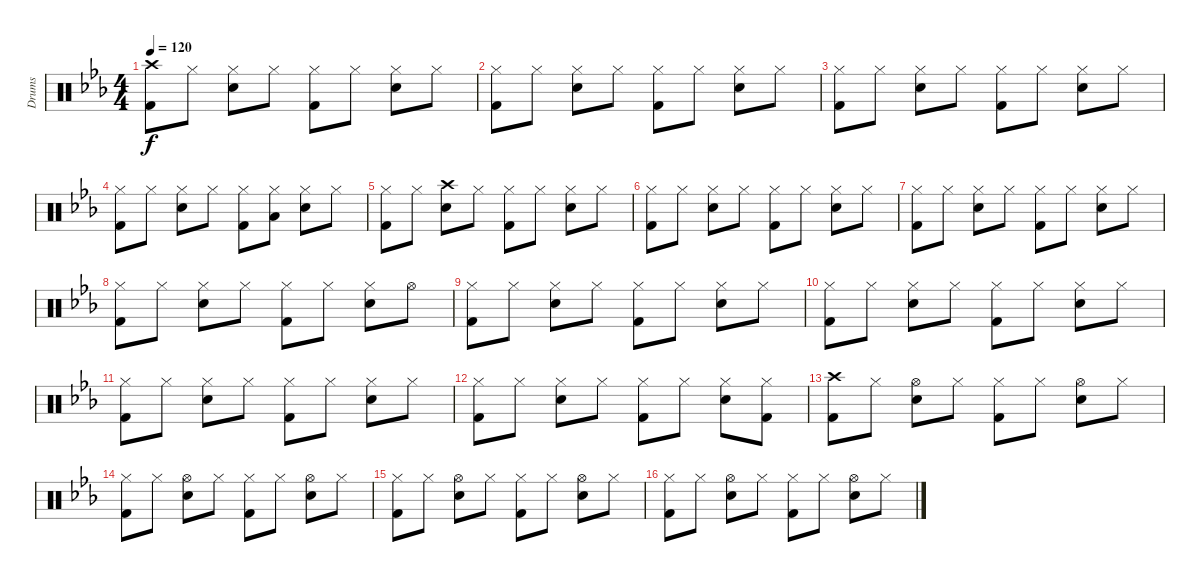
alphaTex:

\track ("Drums" "Drums") {instrument percussion}
\staff {score}
\articulation defaults
\ts (4 4)
\tempo 120
\clef neutral
\ks eb
("Crash high (hit)" "Kick (hit) 2").8{dy f} "Hi-Hat (closed)".8 ("Hi-Hat (closed)" "Snare (hit) 2").8 "Hi-Hat (closed)".8 ("Hi-Hat (closed)" "Kick (hit) 2").8 "Hi-Hat (closed)".8 ("Hi-Hat (closed)" "Snare (hit) 2").8 "Hi-Hat (closed)".8 |
("Hi-Hat (closed)" "Kick (hit) 2").8 "Hi-Hat (closed)".8 ("Hi-Hat (closed)" "Snare (hit) 2").8 "Hi-Hat (closed)".8 ("Hi-Hat (closed)" "Kick (hit) 2").8 "Hi-Hat (closed)".8 ("Hi-Hat (closed)" "Snare (hit) 2").8 "Hi-Hat (closed)".8 |
("Hi-Hat (closed)" "Kick (hit) 2").8 "Hi-Hat (closed)".8 ("Hi-Hat (closed)" "Snare (hit) 2").8 "Hi-Hat (closed)".8 ("Hi-Hat (closed)" "Kick (hit) 2").8 "Hi-Hat (closed)".8 ("Hi-Hat (closed)" "Snare (hit) 2").8 "Hi-Hat (closed)".8 |
("Hi-Hat (closed)" "Kick (hit) 2").8 "Hi-Hat (closed)".8 ("Hi-Hat (closed)" "Snare (hit) 2").8 "Hi-Hat (closed)".8 ("Hi-Hat (closed)" "Kick (hit) 2").8 ("Hi-Hat (closed)" "Low Tom (hit)").8 ("Hi-Hat (closed)" "Snare (hit) 2").8 "Hi-Hat (closed)".8 |
("Hi-Hat (closed)" "Kick (hit) 2").8 "Hi-Hat (closed)".8 ("Crash high (hit)" "Snare (hit) 2").8 "Hi-Hat (closed)".8 ("Hi-Hat (closed)" "Kick (hit) 2").8 "Hi-Hat (closed)".8 ("Hi-Hat (closed)" "Snare (hit) 2").8 "Hi-Hat (closed)".8 |
("Hi-Hat (closed)" "Kick (hit) 2").8 "Hi-Hat (closed)".8 ("Hi-Hat (closed)" "Snare (hit) 2").8 "Hi-Hat (closed)".8 ("Hi-Hat (closed)" "Kick (hit) 2").8 "Hi-Hat (closed)".8 ("Hi-Hat (closed)" "Snare (hit) 2").8 "Hi-Hat (closed)".8 |
("Hi-Hat (closed)" "Kick (hit) 2").8 "Hi-Hat (closed)".8 ("Hi-Hat (closed)" "Snare (hit) 2").8 "Hi-Hat (closed)".8 ("Hi-Hat (closed)" "Kick (hit) 2").8 "Hi-Hat (closed)".8 ("Hi-Hat (closed)" "Snare (hit) 2").8 "Hi-Hat (closed)".8 |
("Hi-Hat (closed)" "Kick (hit) 2").8 "Hi-Hat (closed)".8 ("Hi-Hat (closed)" "Snare (hit) 2").8 "Hi-Hat (closed)".8 ("Hi-Hat (closed)" "Kick (hit) 2").8 "Hi-Hat (closed)".8 ("Hi-Hat (closed)" "Snare (hit) 2").8 "Hi-Hat (open)".8 |
("Hi-Hat (closed)" "Kick (hit) 2").8 "Hi-Hat (closed)".8 ("Hi-Hat (closed)" "Snare (hit) 2").8 "Hi-Hat (closed)".8 ("Hi-Hat (closed)" "Kick (hit) 2").8 "Hi-Hat (closed)".8 ("Hi-Hat (closed)" "Snare (hit) 2").8 "Hi-Hat (closed)".8 |
("Hi-Hat (closed)" "Kick (hit) 2").8 "Hi-Hat (closed)".8 ("Hi-Hat (closed)" "Snare (hit) 2").8 "Hi-Hat (closed)".8 ("Hi-Hat (closed)" "Kick (hit) 2").8 "Hi-Hat (closed)".8 ("Hi-Hat (closed)" "Snare (hit) 2").8 "Hi-Hat (closed)".8 |
("Hi-Hat (closed)" "Kick (hit) 2").8 "Hi-Hat (closed)".8 ("Hi-Hat (closed)" "Snare (hit) 2").8 "Hi-Hat (closed)".8 ("Hi-Hat (closed)" "Kick (hit) 2").8 "Hi-Hat (closed)".8 ("Hi-Hat (closed)" "Snare (hit) 2").8 "Hi-Hat (closed)".8 |
("Hi-Hat (closed)" "Kick (hit) 2").8 "Hi-Hat (closed)".8 ("Hi-Hat (closed)" "Snare (hit) 2").8 "Hi-Hat (closed)".8 ("Hi-Hat (closed)" "Kick (hit) 2").8 "Hi-Hat (closed)".8 ("Hi-Hat (closed)" "Snare (hit) 2").8 ("Hi-Hat (closed)" "Kick (hit) 2").8 |
("Crash high (hit)" "Kick (hit) 2").8 "Hi-Hat (closed)".8 ("Hi-Hat (open)" "Snare (hit) 2").8 "Hi-Hat (closed)".8 ("Hi-Hat (closed)" "Kick (hit) 2").8 "Hi-Hat (closed)".8 ("Hi-Hat (open)" "Snare (hit) 2").8 "Hi-Hat (closed)".8 |
("Hi-Hat (closed)" "Kick (hit) 2").8 "Hi-Hat (closed)".8 ("Hi-Hat (open)" "Snare (hit) 2").8 "Hi-Hat (closed)".8 ("Hi-Hat (closed)" "Kick (hit) 2").8 "Hi-Hat (closed)".8 ("Hi-Hat (open)" "Snare (hit) 2").8 "Hi-Hat (closed)".8 |
("Hi-Hat (closed)" "Kick (hit) 2").8 "Hi-Hat (closed)".8 ("Hi-Hat (open)" "Snare (hit) 2").8 "Hi-Hat (closed)".8 ("Hi-Hat (closed)" "Kick (hit) 2").8 "Hi-Hat (closed)".8 ("Hi-Hat (open)" "Snare (hit) 2").8 "Hi-Hat (closed)".8 |
("Hi-Hat (closed)" "Kick (hit) 2").8 "Hi-Hat (closed)".8 ("Hi-Hat (open)" "Snare (hit) 2").8 "Hi-Hat (closed)".8 ("Hi-Hat (closed)" "Kick (hit) 2").8 "Hi-Hat (closed)".8 ("Hi-Hat (open)" "Snare (hit) 2").8 "Hi-Hat (closed)".8
